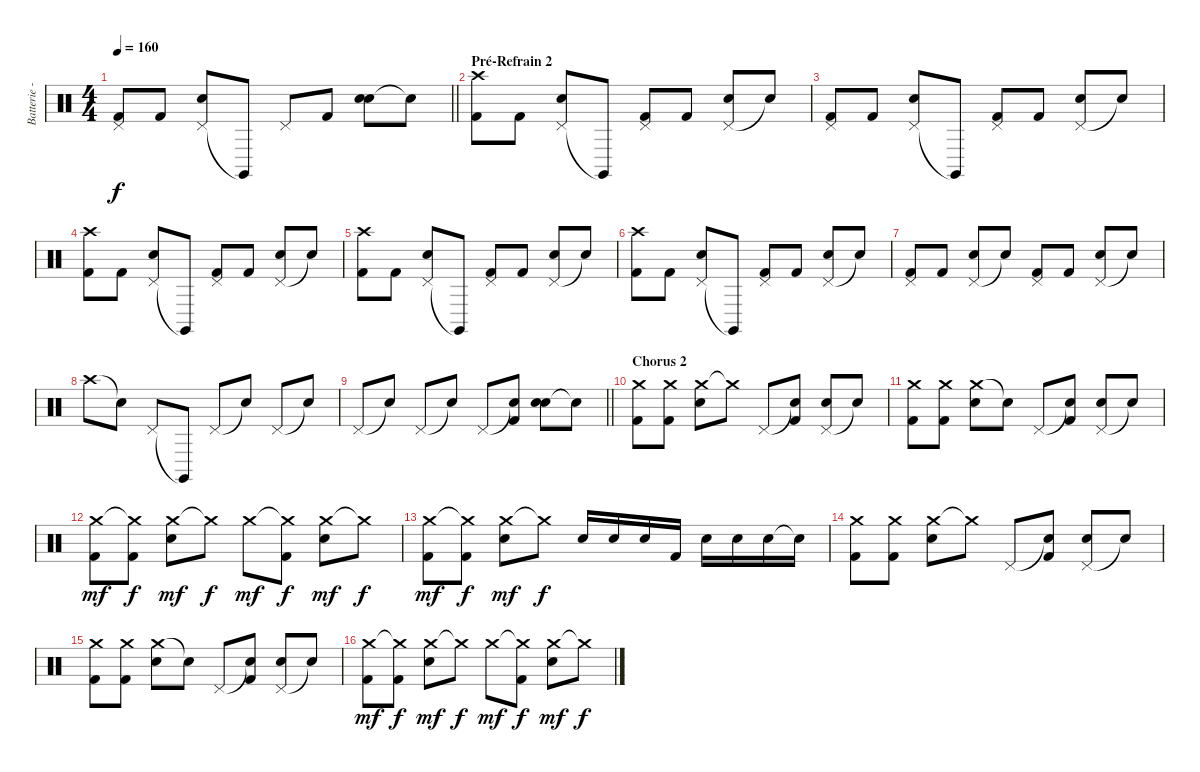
\track ("Batterie - Mikko" "Batterie -") {instrument percussion}
\staff {score}
\articulation defaults
\ts (4 4)
\tempo 160
\clef neutral
\barLineRight lightlight
\ks c
("Pedal Hi-Hat (hit)" "Kick (hit) 2").8{dy f} "Kick (hit) 2".8 ("Pedal Hi-Hat (hit)" "Snare (hit) 2").8 "Claves (hit)"{t}.8 "Pedal Hi-Hat (hit)".8 "Kick (hit) 2".8 ("Snare (hit) 2" "Electric Snare (hit)").8 "Snare (hit)"{t}.8 |
\section ("" "Pré-Refrain 2")
("Crash high (hit)" "Kick (hit) 2").8 "Kick (hit) 2".8 ("Pedal Hi-Hat (hit)" "Snare (hit) 2").8 "Claves (hit)"{t}.8 ("Pedal Hi-Hat (hit)" "Kick (hit) 2").8 "Kick (hit) 2".8 ("Pedal Hi-Hat (hit)" "Snare (hit) 2").8 "Snare (hit)"{t}.8 |
("Pedal Hi-Hat (hit)" "Kick (hit) 2").8 "Kick (hit) 2".8 ("Pedal Hi-Hat (hit)" "Snare (hit) 2").8 "Claves (hit)"{t}.8 ("Pedal Hi-Hat (hit)" "Kick (hit) 2").8 "Kick (hit) 2".8 ("Pedal Hi-Hat (hit)" "Snare (hit) 2").8 "Snare (hit)"{t}.8 |
("Crash high (hit)" "Kick (hit) 2").8 "Kick (hit) 2".8 ("Pedal Hi-Hat (hit)" "Snare (hit) 2").8 "Claves (hit)"{t}.8 ("Pedal Hi-Hat (hit)" "Kick (hit) 2").8 "Kick (hit) 2".8 ("Pedal Hi-Hat (hit)" "Snare (hit) 2").8 "Snare (hit)"{t}.8 |
("Crash high (hit)" "Kick (hit) 2").8 "Kick (hit) 2".8 ("Pedal Hi-Hat (hit)" "Snare (hit) 2").8 "Claves (hit)"{t}.8 ("Pedal Hi-Hat (hit)" "Kick (hit) 2").8 "Kick (hit) 2".8 ("Pedal Hi-Hat (hit)" "Snare (hit) 2").8 "Snare (hit)"{t}.8 |
("Crash high (hit)" "Kick (hit) 2").8 "Kick (hit) 2".8 ("Pedal Hi-Hat (hit)" "Snare (hit) 2").8 "Claves (hit)"{t}.8 ("Pedal Hi-Hat (hit)" "Kick (hit) 2").8 "Kick (hit) 2".8 ("Pedal Hi-Hat (hit)" "Snare (hit) 2").8 "Snare (hit)"{t}.8 |
("Pedal Hi-Hat (hit)" "Kick (hit) 2").8 "Kick (hit) 2".8 ("Pedal Hi-Hat (hit)" "Snare (hit) 2").8 "Snare (hit)"{t}.8 ("Pedal Hi-Hat (hit)" "Kick (hit) 2").8 "Kick (hit) 2".8 ("Pedal Hi-Hat (hit)" "Snare (hit) 2").8 "Snare (hit)"{t}.8 |
"Crash high (hit)".8 "Snare (hit)"{t}.8 "Pedal Hi-Hat (hit)".8 "Claves (hit)"{t}.8 "Pedal Hi-Hat (hit)".8 "Snare (hit)"{t}.8 "Pedal Hi-Hat (hit)".8 "Snare (hit)"{t}.8 |
\barLineRight lightlight "Pedal Hi-Hat (hit)".8 "Snare (hit)"{t}.8 "Pedal Hi-Hat (hit)".8 "Snare (hit)"{t}.8 "Pedal Hi-Hat (hit)".8
("Snare (hit)"{t} "Kick (hit) 2").8 ("Snare (hit) 2" "Electric Snare (hit)").8 "Snare (hit) 2"{t}.8 |
\section ("" "Chorus 2")
("Crash medium (hit)" "Kick (hit) 2").8 ("Crash medium (hit)" "Kick (hit) 2").8 ("Crash medium (hit)" "Snare (hit) 2").8 "Crash medium (hit)"{t}.8 "Pedal Hi-Hat (hit)".8 ("Snare (hit)"{t} "Kick (hit) 2").8 ("Pedal Hi-Hat (hit)" "Snare (hit) 2").8 "Snare (hit)"{t}.8 |
("Crash medium (hit)" "Kick (hit) 2").8 ("Crash medium (hit)" "Kick (hit) 2").8 ("Crash medium (hit)" "Snare (hit) 2").8 "Snare (hit)"{t}.8 "Pedal Hi-Hat (hit)".8 ("Snare (hit)"{t} "Kick (hit) 2").8 ("Pedal Hi-Hat (hit)" "Snare (hit) 2").8 "Snare (hit)"{t}.8 |
("Crash medium (hit)" "Kick (hit) 2").8{dy mf} ("Crash medium (hit)"{t} "Kick (hit) 2").8{dy f} ("Crash medium (hit)" "Snare (hit) 2").8{dy mf} "Crash medium (hit)"{t}.8{dy f} "Crash medium (hit)".8{dy mf} ("Crash medium (hit)"{t} "Kick (hit) 2").8{dy f} ("Crash medium (hit)" "Snare (hit) 2").8{dy mf} "Crash medium (hit)"{t}.8{dy f} |
("Crash medium (hit)" "Kick (hit) 2").8{dy mf} ("Crash medium (hit)"{t} "Kick (hit) 2").8{dy f} ("Crash medium (hit)" "Snare (hit) 2").8{dy mf} "Crash medium (hit)"{t}.8{dy f} "Snare (hit) 2".16 "Snare (hit) 2".16 "Snare (hit) 2".16 "Kick (hit) 2".16 "Snare (hit) 2".16 "Snare (hit) 2".16 "Snare (hit) 2".16 "Snare (hit)"{t}.16 |
("Crash medium (hit)" "Kick (hit) 2").8 ("Crash medium (hit)" "Kick (hit) 2").8 ("Crash medium (hit)" "Snare (hit) 2").8 "Crash medium (hit)"{t}.8 "Pedal Hi-Hat (hit)".8 ("Snare (hit)"{t} "Kick (hit) 2").8 ("Pedal Hi-Hat (hit)" "Snare (hit) 2").8 "Snare (hit)"{t}.8 |
("Crash medium (hit)" "Kick (hit) 2").8 ("Crash medium (hit)" "Kick (hit) 2").8 ("Crash medium (hit)" "Snare (hit) 2").8 "Snare (hit)"{t}.8 "Pedal Hi-Hat (hit)".8 ("Snare (hit)"{t} "Kick (hit) 2").8 ("Pedal Hi-Hat (hit)" "Snare (hit) 2").8 "Snare (hit)"{t}.8 |
("Crash medium (hit)" "Kick (hit) 2").8{dy mf} ("Crash medium (hit)"{t} "Kick (hit) 2").8{dy f} ("Crash medium (hit)" "Snare (hit) 2").8{dy mf} "Crash medium (hit)"{t}.8{dy f} "Crash medium (hit)".8{dy mf} ("Crash medium (hit)"{t} "Kick (hit) 2").8{dy f} ("Crash medium (hit)" "Snare (hit) 2").8{dy mf} "Crash medium (hit)"{t}.8{dy f}
